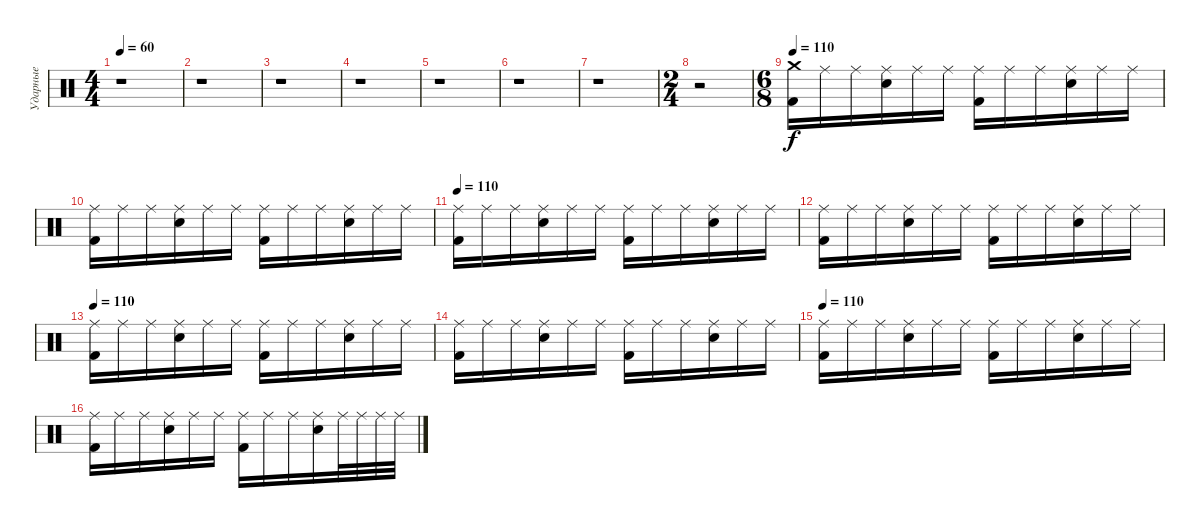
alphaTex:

\track ("Ударные" "Ударные") {instrument percussion}
\staff {score}
\articulation defaults
\ts (4 4)
\tempo 60
\clef neutral
\ks c
r.1{dy f} |
r.1 |
r.1 |
r.1 |
r.1 |
r.1 |
r.1 |
\ts (2 4)
r.2 |
\ts (6 8)
\tempo 110
("Crash medium (hit)" "Kick (hit) 2").16 "Ride (middle)".16 "Ride (middle)".16 ("Ride (middle)" "Electric Snare (hit)").16 "Ride (middle)".16 "Ride (middle)".16 ("Ride (middle)" "Kick (hit) 2").16 "Ride (middle)".16 "Ride (middle)".16 ("Ride (middle)" "Electric Snare (hit)").16 "Ride (middle)".16 "Ride (middle)".16 |
("Ride (middle)" "Kick (hit) 2").16 "Ride (middle)".16 "Ride (middle)".16 ("Ride (middle)" "Electric Snare (hit)").16 "Ride (middle)".16 "Ride (middle)".16 ("Ride (middle)" "Kick (hit) 2").16 "Ride (middle)".16 "Ride (middle)".16 ("Ride (middle)" "Electric Snare (hit)").16 "Ride (middle)".16 "Ride (middle)".16 |
\tempo 110
("Ride (middle)" "Kick (hit) 2").16 "Ride (middle)".16 "Ride (middle)".16 ("Ride (middle)" "Electric Snare (hit)").16 "Ride (middle)".16 "Ride (middle)".16 ("Ride (middle)" "Kick (hit) 2").16 "Ride (middle)".16 "Ride (middle)".16 ("Ride (middle)" "Electric Snare (hit)").16 "Ride (middle)".16 "Ride (middle)".16 |
("Ride (middle)" "Kick (hit) 2").16 "Ride (middle)".16 "Ride (middle)".16 ("Ride (middle)" "Electric Snare (hit)").16 "Ride (middle)".16 "Ride (middle)".16 ("Ride (middle)" "Kick (hit) 2").16 "Ride (middle)".16 "Ride (middle)".16 ("Ride (middle)" "Electric Snare (hit)").16 "Ride (middle)".16 "Ride (middle)".16 |
\tempo 110
("Ride (middle)" "Kick (hit) 2").16 "Ride (middle)".16 "Ride (middle)".16 ("Ride (middle)" "Electric Snare (hit)").16 "Ride (middle)".16 "Ride (middle)".16 ("Ride (middle)" "Kick (hit) 2").16 "Ride (middle)".16 "Ride (middle)".16 ("Ride (middle)" "Electric Snare (hit)").16 "Ride (middle)".16 "Ride (middle)".16 |
("Ride (middle)" "Kick (hit) 2").16 "Ride (middle)".16 "Ride (middle)".16 ("Ride (middle)" "Electric Snare (hit)").16 "Ride (middle)".16 "Ride (middle)".16 ("Ride (middle)" "Kick (hit) 2").16 "Ride (middle)".16 "Ride (middle)".16 ("Ride (middle)" "Electric Snare (hit)").16 "Ride (middle)".16 "Ride (middle)".16 |
\tempo 110
("Ride (middle)" "Kick (hit) 2").16 "Ride (middle)".16 "Ride (middle)".16 ("Ride (middle)" "Electric Snare (hit)").16 "Ride (middle)".16 "Ride (middle)".16 ("Ride (middle)" "Kick (hit) 2").16 "Ride (middle)".16 "Ride (middle)".16 ("Ride (middle)" "Electric Snare (hit)").16 "Ride (middle)".16 "Ride (middle)".16 |
("Ride (middle)" "Kick (hit) 2").16 "Ride (middle)".16 "Ride (middle)".16 ("Ride (middle)" "Electric Snare (hit)").16 "Ride (middle)".16 "Ride (middle)".16 ("Ride (middle)" "Kick (hit) 2").16 "Ride (middle)".16 "Ride (middle)".16 ("Ride (middle)" "Electric Snare (hit)").16 "Ride (middle)".32 "Ride (middle)".32 "Ride (middle)".32 "Ride (middle)".32
